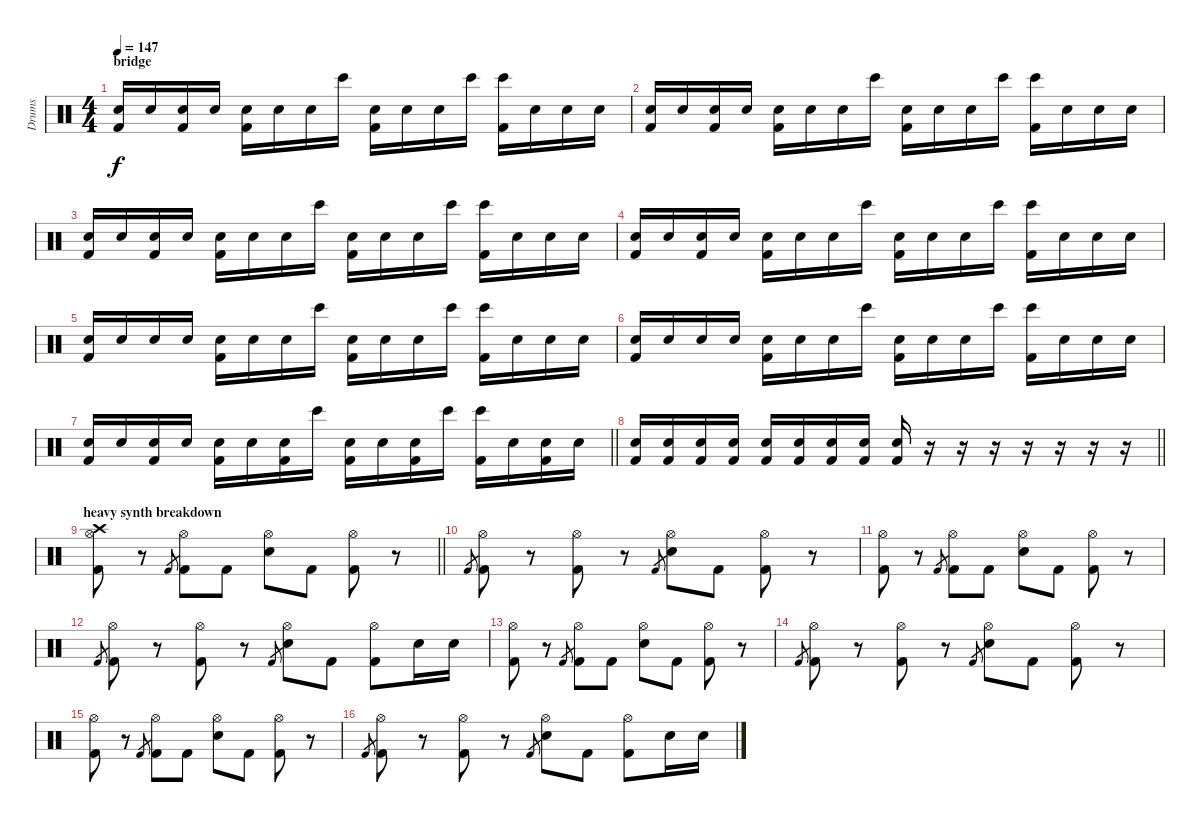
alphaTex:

\track ("Drums" "Drums") {instrument percussion}
\staff {score}
\articulation defaults
\ts (4 4)
\section ("" "bridge")
\tempo 147
\clef neutral
\ks c
("Electric Snare (hit)" "Kick (hit) 2").16{dy f} "Electric Snare (hit)".16 ("Electric Snare (hit)" "Kick (hit) 2").16 "Electric Snare (hit)".16 ("Electric Snare (hit)" "Kick (hit) 2").16 "Electric Snare (hit)".16 "Electric Snare (hit)".16 "Bongo High (hit)".16 ("Electric Snare (hit)" "Kick (hit) 2").16 "Electric Snare (hit)".16 "Electric Snare (hit)".16 "Bongo High (hit)".16 ("Bongo High (hit)" "Kick (hit) 2").16 "Electric Snare (hit)".16 "Electric Snare (hit)".16 "Electric Snare (hit)".16 |
("Electric Snare (hit)" "Kick (hit) 2").16 "Electric Snare (hit)".16 ("Electric Snare (hit)" "Kick (hit) 2").16 "Electric Snare (hit)".16 ("Electric Snare (hit)" "Kick (hit) 2").16 "Electric Snare (hit)".16 "Electric Snare (hit)".16 "Bongo High (hit)".16 ("Electric Snare (hit)" "Kick (hit) 2").16 "Electric Snare (hit)".16 "Electric Snare (hit)".16 "Bongo High (hit)".16 ("Bongo High (hit)" "Kick (hit) 2").16 "Electric Snare (hit)".16 "Electric Snare (hit)".16 "Electric Snare (hit)".16 |
("Electric Snare (hit)" "Kick (hit) 2").16 "Electric Snare (hit)".16 ("Electric Snare (hit)" "Kick (hit) 2").16 "Electric Snare (hit)".16 ("Electric Snare (hit)" "Kick (hit) 2").16 "Electric Snare (hit)".16 "Electric Snare (hit)".16 "Bongo High (hit)".16 ("Electric Snare (hit)" "Kick (hit) 2").16 "Electric Snare (hit)".16 "Electric Snare (hit)".16 "Bongo High (hit)".16 ("Bongo High (hit)" "Kick (hit) 2").16 "Electric Snare (hit)".16 "Electric Snare (hit)".16 "Electric Snare (hit)".16 |
("Electric Snare (hit)" "Kick (hit) 2").16 "Electric Snare (hit)".16 ("Electric Snare (hit)" "Kick (hit) 2").16 "Electric Snare (hit)".16 ("Electric Snare (hit)" "Kick (hit) 2").16 "Electric Snare (hit)".16 "Electric Snare (hit)".16 "Bongo High (hit)".16 ("Electric Snare (hit)" "Kick (hit) 2").16 "Electric Snare (hit)".16 "Electric Snare (hit)".16 "Bongo High (hit)".16 ("Bongo High (hit)" "Kick (hit) 2").16 "Electric Snare (hit)".16 "Electric Snare (hit)".16 "Electric Snare (hit)".16 |
("Electric Snare (hit)" "Kick (hit) 2").16 "Electric Snare (hit)".16 "Electric Snare (hit)".16 "Electric Snare (hit)".16 ("Electric Snare (hit)" "Kick (hit) 2").16 "Electric Snare (hit)".16 "Electric Snare (hit)".16 "Bongo High (hit)".16 ("Electric Snare (hit)" "Kick (hit) 2").16 "Electric Snare (hit)".16 "Electric Snare (hit)".16 "Bongo High (hit)".16 ("Bongo High (hit)" "Kick (hit) 2").16 "Electric Snare (hit)".16 "Electric Snare (hit)".16 "Electric Snare (hit)".16 |
("Electric Snare (hit)" "Kick (hit) 2").16 "Electric Snare (hit)".16 "Electric Snare (hit)".16 "Electric Snare (hit)".16 ("Electric Snare (hit)" "Kick (hit) 2").16 "Electric Snare (hit)".16 "Electric Snare (hit)".16 "Bongo High (hit)".16 ("Electric Snare (hit)" "Kick (hit) 2").16 "Electric Snare (hit)".16 "Electric Snare (hit)".16 "Bongo High (hit)".16 ("Bongo High (hit)" "Kick (hit) 2").16 "Electric Snare (hit)".16 "Electric Snare (hit)".16 "Electric Snare (hit)".16 |
\barLineRight lightlight
("Electric Snare (hit)" "Kick (hit) 2").16 "Electric Snare (hit)".16 ("Electric Snare (hit)" "Kick (hit) 2").16 "Electric Snare (hit)".16 ("Electric Snare (hit)" "Kick (hit) 2").16 "Electric Snare (hit)".16 ("Electric Snare (hit)" "Kick (hit) 2").16 "Bongo High (hit)".16 ("Electric Snare (hit)" "Kick (hit) 2").16 "Electric Snare (hit)".16 ("Electric Snare (hit)" "Kick (hit) 2").16 "Bongo High (hit)".16 ("Bongo High (hit)" "Kick (hit) 2").16 "Electric Snare (hit)".16 ("Electric Snare (hit)" "Kick (hit) 2").16 "Electric Snare (hit)".16 |
\barLineRight lightlight
("Electric Snare (hit)" "Kick (hit) 2").16 ("Electric Snare (hit)" "Kick (hit) 2").16 ("Electric Snare (hit)" "Kick (hit) 2").16 ("Electric Snare (hit)" "Kick (hit) 2").16 ("Electric Snare (hit)" "Kick (hit) 2").16 ("Electric Snare (hit)" "Kick (hit) 2").16 ("Electric Snare (hit)" "Kick (hit) 2").16 ("Electric Snare (hit)" "Kick (hit) 2").16 ("Electric Snare (hit)" "Kick (hit) 2").16 r.16 r.16 r.16 r.16 r.16 r.16 r.16 |
\section ("" "heavy synth breakdown")
\barLineRight lightlight
("Crash high (hit)" "Hi-Hat (open)" "Kick (hit) 2").8 r.8 "Kick (hit) 2".8{gr} ("Hi-Hat (open)" "Kick (hit) 2").8 "Kick (hit) 2".8 ("Hi-Hat (open)" "Electric Snare (hit)").8 "Kick (hit) 2".8 ("Hi-Hat (open)" "Kick (hit) 2").8 r.8 |
"Kick (hit) 2".8{gr} ("Hi-Hat (open)" "Kick (hit) 2").8 r.8 ("Hi-Hat (open)" "Kick (hit) 2").8 r.8 "Kick (hit) 2".8{gr} ("Hi-Hat (open)" "Electric Snare (hit)").8 "Kick (hit) 2".8 ("Hi-Hat (open)" "Kick (hit) 2").8 r.8 |
("Hi-Hat (open)" "Kick (hit) 2").8 r.8 "Kick (hit) 2".8{gr} ("Hi-Hat (open)" "Kick (hit) 2").8 "Kick (hit) 2".8 ("Hi-Hat (open)" "Electric Snare (hit)").8 "Kick (hit) 2".8 ("Hi-Hat (open)" "Kick (hit) 2").8 r.8 |
"Kick (hit) 2".8{gr} ("Hi-Hat (open)" "Kick (hit) 2").8 r.8 ("Hi-Hat (open)" "Kick (hit) 2").8 r.8 "Kick (hit) 2".8{gr} ("Hi-Hat (open)" "Electric Snare (hit)").8 "Kick (hit) 2".8 ("Hi-Hat (open)" "Kick (hit) 2").8 "Electric Snare (hit)".16 "Electric Snare (hit)".16 |
("Hi-Hat (open)" "Kick (hit) 2").8 r.8 "Kick (hit) 2".8{gr} ("Hi-Hat (open)" "Kick (hit) 2").8 "Kick (hit) 2".8 ("Hi-Hat (open)" "Electric Snare (hit)").8 "Kick (hit) 2".8 ("Hi-Hat (open)" "Kick (hit) 2").8 r.8 |
"Kick (hit) 2".8{gr} ("Hi-Hat (open)" "Kick (hit) 2").8 r.8 ("Hi-Hat (open)" "Kick (hit) 2").8 r.8 "Kick (hit) 2".8{gr} ("Hi-Hat (open)" "Electric Snare (hit)").8 "Kick (hit) 2".8 ("Hi-Hat (open)" "Kick (hit) 2").8 r.8 |
("Hi-Hat (open)" "Kick (hit) 2").8 r.8 "Kick (hit) 2".8{gr} ("Hi-Hat (open)" "Kick (hit) 2").8 "Kick (hit) 2".8 ("Hi-Hat (open)" "Electric Snare (hit)").8 "Kick (hit) 2".8 ("Hi-Hat (open)" "Kick (hit) 2").8 r.8 |
"Kick (hit) 2".8{gr} ("Hi-Hat (open)" "Kick (hit) 2").8 r.8 ("Hi-Hat (open)" "Kick (hit) 2").8 r.8 "Kick (hit) 2".8{gr} ("Hi-Hat (open)" "Electric Snare (hit)").8 "Kick (hit) 2".8 ("Hi-Hat (open)" "Kick (hit) 2").8 "Electric Snare (hit)".16 "Electric Snare (hit)".16
